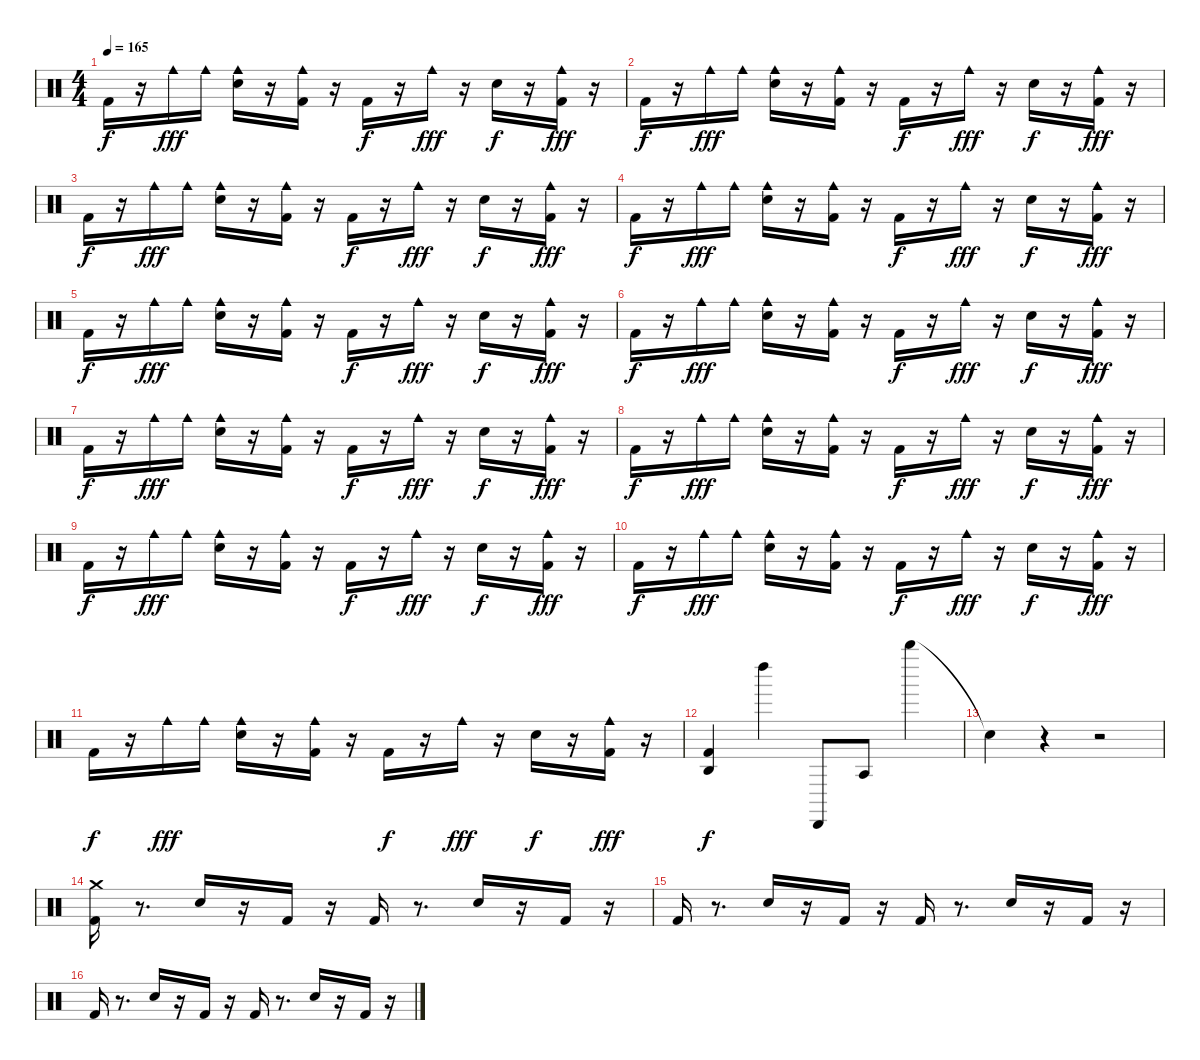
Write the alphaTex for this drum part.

\track "" {instrument percussion}
\staff {score}
\articulation defaults
\ts (4 4)
\tempo 165
\clef neutral
\ks c "Kick (hit) 2".16{dy f}
r.16 "Cowbell medium (hit)".16{dy fff} "Cowbell medium (hit)".16 ("Snare (hit) 2" "Cowbell medium (hit)").16 r.16 ("Kick (hit) 2" "Cowbell medium (hit)").16 r.16 "Kick (hit) 2".16{dy f} r.16 "Cowbell medium (hit)".16{dy fff} r.16 "Snare (hit) 2".16{dy f} r.16 ("Kick (hit) 2" "Cowbell medium (hit)").16{dy fff} r.16 |
"Kick (hit) 2".16{dy f} r.16 "Cowbell medium (hit)".16{dy fff} "Cowbell medium (hit)".16 ("Snare (hit) 2" "Cowbell medium (hit)").16 r.16 ("Kick (hit) 2" "Cowbell medium (hit)").16 r.16 "Kick (hit) 2".16{dy f} r.16 "Cowbell medium (hit)".16{dy fff} r.16 "Snare (hit) 2".16{dy f} r.16 ("Kick (hit) 2" "Cowbell medium (hit)").16{dy fff} r.16 |
"Kick (hit) 2".16{dy f} r.16 "Cowbell medium (hit)".16{dy fff} "Cowbell medium (hit)".16 ("Snare (hit) 2" "Cowbell medium (hit)").16 r.16 ("Kick (hit) 2" "Cowbell medium (hit)").16 r.16 "Kick (hit) 2".16{dy f} r.16 "Cowbell medium (hit)".16{dy fff} r.16 "Snare (hit) 2".16{dy f} r.16 ("Kick (hit) 2" "Cowbell medium (hit)").16{dy fff} r.16 |
"Kick (hit) 2".16{dy f} r.16 "Cowbell medium (hit)".16{dy fff} "Cowbell medium (hit)".16 ("Snare (hit) 2" "Cowbell medium (hit)").16 r.16 ("Kick (hit) 2" "Cowbell medium (hit)").16 r.16 "Kick (hit) 2".16{dy f} r.16 "Cowbell medium (hit)".16{dy fff} r.16 "Snare (hit) 2".16{dy f} r.16 ("Kick (hit) 2" "Cowbell medium (hit)").16{dy fff} r.16 |
"Kick (hit) 2".16{dy f} r.16 "Cowbell medium (hit)".16{dy fff} "Cowbell medium (hit)".16 ("Snare (hit) 2" "Cowbell medium (hit)").16 r.16 ("Kick (hit) 2" "Cowbell medium (hit)").16 r.16 "Kick (hit) 2".16{dy f} r.16 "Cowbell medium (hit)".16{dy fff} r.16 "Snare (hit) 2".16{dy f} r.16 ("Kick (hit) 2" "Cowbell medium (hit)").16{dy fff} r.16 |
"Kick (hit) 2".16{dy f} r.16 "Cowbell medium (hit)".16{dy fff} "Cowbell medium (hit)".16 ("Snare (hit) 2" "Cowbell medium (hit)").16 r.16 ("Kick (hit) 2" "Cowbell medium (hit)").16 r.16 "Kick (hit) 2".16{dy f} r.16 "Cowbell medium (hit)".16{dy fff} r.16 "Snare (hit) 2".16{dy f} r.16 ("Kick (hit) 2" "Cowbell medium (hit)").16{dy fff} r.16 |
"Kick (hit) 2".16{dy f} r.16 "Cowbell medium (hit)".16{dy fff} "Cowbell medium (hit)".16 ("Snare (hit) 2" "Cowbell medium (hit)").16 r.16 ("Kick (hit) 2" "Cowbell medium (hit)").16 r.16 "Kick (hit) 2".16{dy f} r.16 "Cowbell medium (hit)".16{dy fff} r.16 "Snare (hit) 2".16{dy f} r.16 ("Kick (hit) 2" "Cowbell medium (hit)").16{dy fff} r.16 |
"Kick (hit) 2".16{dy f} r.16 "Cowbell medium (hit)".16{dy fff} "Cowbell medium (hit)".16 ("Snare (hit) 2" "Cowbell medium (hit)").16 r.16 ("Kick (hit) 2" "Cowbell medium (hit)").16 r.16 "Kick (hit) 2".16{dy f} r.16 "Cowbell medium (hit)".16{dy fff} r.16 "Snare (hit) 2".16{dy f} r.16 ("Kick (hit) 2" "Cowbell medium (hit)").16{dy fff} r.16 |
"Kick (hit) 2".16{dy f} r.16 "Cowbell medium (hit)".16{dy fff} "Cowbell medium (hit)".16 ("Snare (hit) 2" "Cowbell medium (hit)").16 r.16 ("Kick (hit) 2" "Cowbell medium (hit)").16 r.16 "Kick (hit) 2".16{dy f} r.16 "Cowbell medium (hit)".16{dy fff} r.16 "Snare (hit) 2".16{dy f} r.16 ("Kick (hit) 2" "Cowbell medium (hit)").16{dy fff} r.16 |
"Kick (hit) 2".16{dy f} r.16 "Cowbell medium (hit)".16{dy fff} "Cowbell medium (hit)".16 ("Snare (hit) 2" "Cowbell medium (hit)").16 r.16 ("Kick (hit) 2" "Cowbell medium (hit)").16 r.16 "Kick (hit) 2".16{dy f} r.16 "Cowbell medium (hit)".16{dy fff} r.16 "Snare (hit) 2".16{dy f} r.16 ("Kick (hit) 2" "Cowbell medium (hit)").16{dy fff} r.16 |
"Kick (hit) 2".16{dy f} r.16 "Cowbell medium (hit)".16{dy fff} "Cowbell medium (hit)".16 ("Snare (hit) 2" "Cowbell medium (hit)").16 r.16 ("Kick (hit) 2" "Cowbell medium (hit)").16 r.16 "Kick (hit) 2".16{dy f} r.16 "Cowbell medium (hit)".16{dy fff} r.16 "Snare (hit) 2".16{dy f} r.16 ("Kick (hit) 2" "Cowbell medium (hit)").16{dy fff} r.16 |
("Kick (hit) 2" "Agogo high (hit)").4{dy f} "Left Maraca (hit)".4 "Cabasa (hit)".8 "Agogo tow (hit)".8 "Whistle high (hit)".4 |
"Snare (hit)"{t}.4 r.4 r.2 |
("Crash medium (hit)" "Kick (hit) 2").16 r.8{d} "Snare (hit) 2".16 r.16 "Kick (hit) 2".16 r.16 "Kick (hit) 2".16 r.8{d} "Snare (hit) 2".16 r.16 "Kick (hit) 2".16 r.16 |
"Kick (hit) 2".16 r.8{d} "Snare (hit) 2".16 r.16 "Kick (hit) 2".16 r.16 "Kick (hit) 2".16 r.8{d} "Snare (hit) 2".16 r.16 "Kick (hit) 2".16 r.16 |
"Kick (hit) 2".16 r.8{d} "Snare (hit) 2".16 r.16 "Kick (hit) 2".16 r.16 "Kick (hit) 2".16 r.8{d} "Snare (hit) 2".16 r.16 "Kick (hit) 2".16 r.16
